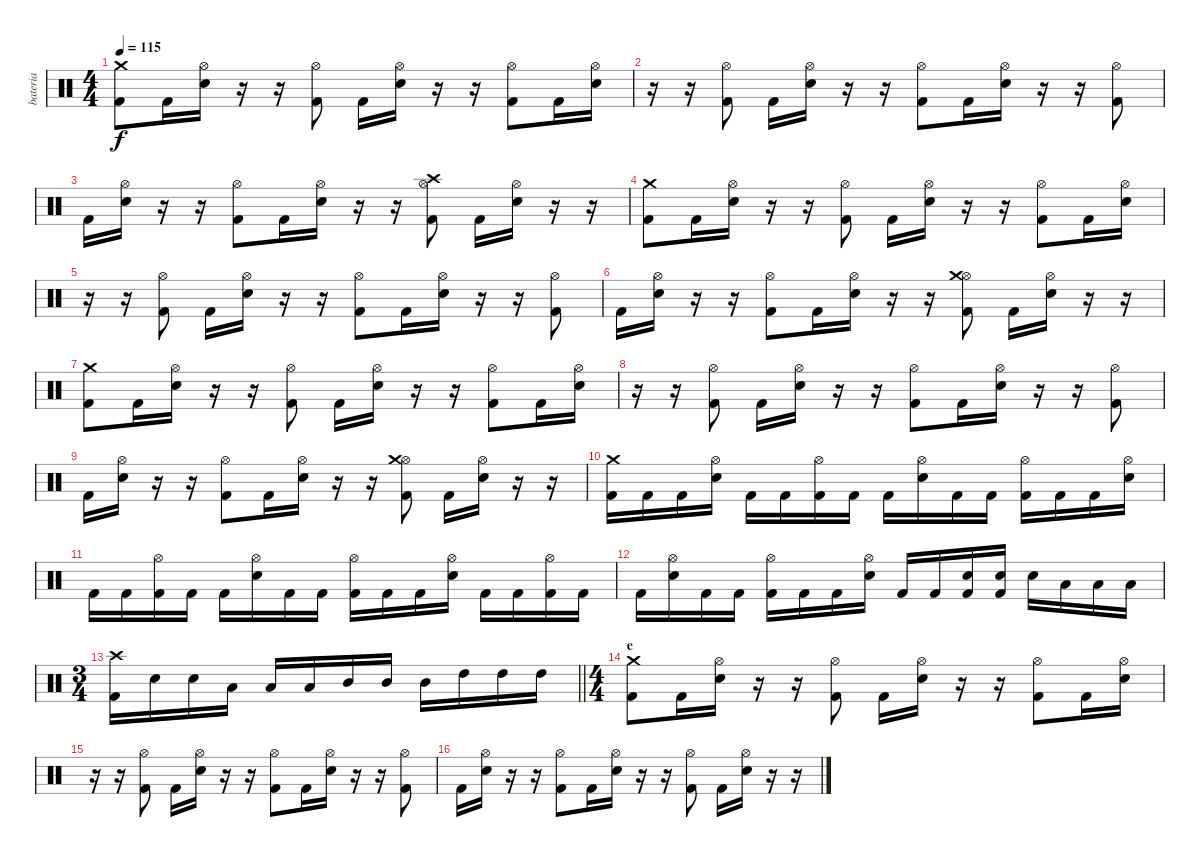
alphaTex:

\track ("bateria" "bateria") {instrument percussion}
\staff {score}
\articulation defaults
\ts (4 4)
\tempo 115
\clef neutral
\ks c
("Kick (hit) 2" "Crash medium (hit)").8{dy f} "Kick (hit) 2".16 ("Electric Snare (hit)" "Hi-Hat (open)").16 r.16 r.16 ("Kick (hit) 2" "Hi-Hat (open)").8 "Kick (hit) 2".16 ("Hi-Hat (open)" "Electric Snare (hit)").16 r.16 r.16 ("Kick (hit) 2" "Hi-Hat (open)").8 "Kick (hit) 2".16 ("Hi-Hat (open)" "Electric Snare (hit)").16 |
r.16 r.16 ("Kick (hit) 2" "Hi-Hat (open)").8 "Kick (hit) 2".16 ("Hi-Hat (open)" "Electric Snare (hit)").16 r.16 r.16 ("Kick (hit) 2" "Hi-Hat (open)").8 "Kick (hit) 2".16 ("Hi-Hat (open)" "Electric Snare (hit)").16 r.16 r.16 ("Kick (hit) 2" "Hi-Hat (open)").8 |
"Kick (hit) 2".16 ("Electric Snare (hit)" "Hi-Hat (open)").16 r.16 r.16 ("Kick (hit) 2" "Hi-Hat (open)").8 "Kick (hit) 2".16 ("Hi-Hat (open)" "Electric Snare (hit)").16 r.16 r.16 ("Kick (hit) 2" "Hi-Hat (open)" "Crash high (hit)").8 "Kick (hit) 2".16 ("Hi-Hat (open)" "Electric Snare (hit)").16 r.16 r.16 |
("Kick (hit) 2" "Crash medium (hit)").8 "Kick (hit) 2".16 ("Electric Snare (hit)" "Hi-Hat (open)").16 r.16 r.16 ("Kick (hit) 2" "Hi-Hat (open)").8 "Kick (hit) 2".16 ("Hi-Hat (open)" "Electric Snare (hit)").16 r.16 r.16 ("Kick (hit) 2" "Hi-Hat (open)").8 "Kick (hit) 2".16 ("Hi-Hat (open)" "Electric Snare (hit)").16 |
r.16 r.16 ("Kick (hit) 2" "Hi-Hat (open)").8 "Kick (hit) 2".16 ("Hi-Hat (open)" "Electric Snare (hit)").16 r.16 r.16 ("Kick (hit) 2" "Hi-Hat (open)").8 "Kick (hit) 2".16 ("Hi-Hat (open)" "Electric Snare (hit)").16 r.16 r.16 ("Kick (hit) 2" "Hi-Hat (open)").8 |
"Kick (hit) 2".16 ("Electric Snare (hit)" "Hi-Hat (open)").16 r.16 r.16 ("Kick (hit) 2" "Hi-Hat (open)").8 "Kick (hit) 2".16 ("Hi-Hat (open)" "Electric Snare (hit)").16 r.16 r.16 ("Kick (hit) 2" "Hi-Hat (open)" "Crash medium (hit)").8 "Kick (hit) 2".16 ("Hi-Hat (open)" "Electric Snare (hit)").16 r.16 r.16 |
("Kick (hit) 2" "Crash medium (hit)").8 "Kick (hit) 2".16 ("Electric Snare (hit)" "Hi-Hat (open)").16 r.16 r.16 ("Kick (hit) 2" "Hi-Hat (open)").8 "Kick (hit) 2".16 ("Hi-Hat (open)" "Electric Snare (hit)").16 r.16 r.16 ("Kick (hit) 2" "Hi-Hat (open)").8 "Kick (hit) 2".16 ("Hi-Hat (open)" "Electric Snare (hit)").16 |
r.16 r.16 ("Kick (hit) 2" "Hi-Hat (open)").8 "Kick (hit) 2".16 ("Hi-Hat (open)" "Electric Snare (hit)").16 r.16 r.16 ("Kick (hit) 2" "Hi-Hat (open)").8 "Kick (hit) 2".16 ("Hi-Hat (open)" "Electric Snare (hit)").16 r.16 r.16 ("Kick (hit) 2" "Hi-Hat (open)").8 |
"Kick (hit) 2".16 ("Electric Snare (hit)" "Hi-Hat (open)").16 r.16 r.16 ("Kick (hit) 2" "Hi-Hat (open)").8 "Kick (hit) 2".16 ("Hi-Hat (open)" "Electric Snare (hit)").16 r.16 r.16 ("Kick (hit) 2" "Hi-Hat (open)" "Crash medium (hit)").8 "Kick (hit) 2".16 ("Hi-Hat (open)" "Electric Snare (hit)").16 r.16 r.16 |
("Kick (hit) 2" "Crash medium (hit)").16 "Kick (hit) 2".16 "Kick (hit) 2".16 ("Electric Snare (hit)" "Hi-Hat (open)").16 "Kick (hit) 2".16 "Kick (hit) 2".16 ("Kick (hit) 2" "Hi-Hat (open)").16 "Kick (hit) 2".16 "Kick (hit) 2".16 ("Hi-Hat (open)" "Electric Snare (hit)").16 "Kick (hit) 2".16 "Kick (hit) 2".16 ("Kick (hit) 2" "Hi-Hat (open)").16 "Kick (hit) 2".16 "Kick (hit) 2".16 ("Hi-Hat (open)" "Electric Snare (hit)").16 |
"Kick (hit) 2".16 "Kick (hit) 2".16 ("Kick (hit) 2" "Hi-Hat (open)").16 "Kick (hit) 2".16 "Kick (hit) 2".16 ("Hi-Hat (open)" "Electric Snare (hit)").16 "Kick (hit) 2".16 "Kick (hit) 2".16 ("Kick (hit) 2" "Hi-Hat (open)").16 "Kick (hit) 2".16 "Kick (hit) 2".16 ("Hi-Hat (open)" "Electric Snare (hit)").16 "Kick (hit) 2".16 "Kick (hit) 2".16 ("Kick (hit) 2" "Hi-Hat (open)").16 "Kick (hit) 2".16 |
"Kick (hit) 2".16 ("Hi-Hat (open)" "Electric Snare (hit)").16 "Kick (hit) 2".16 "Kick (hit) 2".16 ("Kick (hit) 2" "Hi-Hat (open)").16 "Kick (hit) 2".16 "Kick (hit) 2".16 ("Hi-Hat (open)" "Electric Snare (hit)").16 "Kick (hit) 2".16 "Kick (hit) 2".16 ("Kick (hit) 2" "Electric Snare (hit)").16 ("Kick (hit) 2" "Electric Snare (hit)").16 "Electric Snare (hit)".16 "Low Tom (hit)".16 "Low Tom (hit)".16 "Low Tom (hit)".16 |
\ts (3 4)
\barLineRight lightlight
("Crash high (hit)" "Kick (hit) 2").16 "Snare (hit) 2".16 "Snare (hit) 2".16 "Low Tom (hit)".16 "Low Tom (hit)".16 "Low Tom (hit)".16 "Mid Tom (hit)".16 "Mid Tom (hit)".16 "Mid Tom (hit)".16 "High Tom (hit)".16 "High Tom (hit)".16 "High Tom (hit)".16 |
\ts (4 4)
\section ("" "e")
("Kick (hit) 2" "Crash medium (hit)").8 "Kick (hit) 2".16 ("Electric Snare (hit)" "Hi-Hat (open)").16 r.16 r.16 ("Kick (hit) 2" "Hi-Hat (open)").8 "Kick (hit) 2".16 ("Hi-Hat (open)" "Electric Snare (hit)").16 r.16 r.16 ("Kick (hit) 2" "Hi-Hat (open)").8 "Kick (hit) 2".16 ("Hi-Hat (open)" "Electric Snare (hit)").16 |
r.16 r.16 ("Kick (hit) 2" "Hi-Hat (open)").8 "Kick (hit) 2".16 ("Hi-Hat (open)" "Electric Snare (hit)").16 r.16 r.16 ("Kick (hit) 2" "Hi-Hat (open)").8 "Kick (hit) 2".16 ("Hi-Hat (open)" "Electric Snare (hit)").16 r.16 r.16 ("Kick (hit) 2" "Hi-Hat (open)").8 |
"Kick (hit) 2".16 ("Electric Snare (hit)" "Hi-Hat (open)").16 r.16 r.16 ("Kick (hit) 2" "Hi-Hat (open)").8 "Kick (hit) 2".16 ("Hi-Hat (open)" "Electric Snare (hit)").16 r.16 r.16 ("Kick (hit) 2" "Hi-Hat (open)").8 "Kick (hit) 2".16 ("Hi-Hat (open)" "Electric Snare (hit)").16 r.16 r.16
